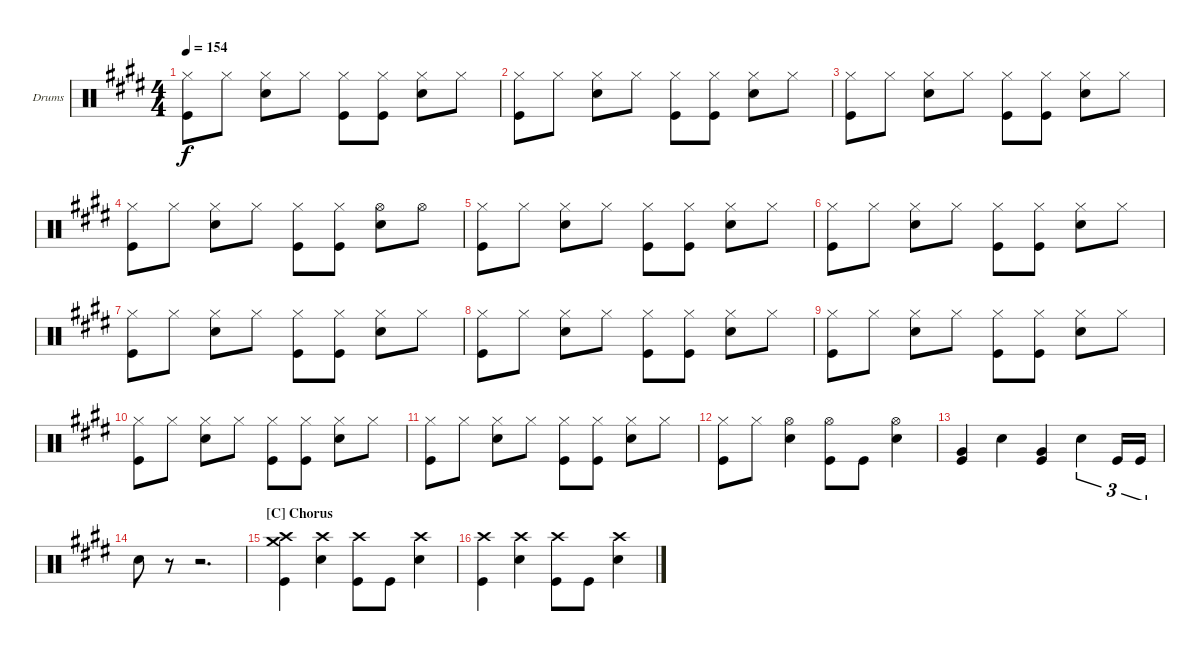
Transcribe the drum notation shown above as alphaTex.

\defaultSystemsLayout 4
\bracketExtendMode groupsimilarinstruments
\firstSystemTrackNameOrientation horizontal
\otherSystemsTrackNameOrientation horizontal
\track ("Jon Larsen" "Drums") {instrument percussion}
\staff {score}
\articulation defaults
\ts (4 4)
\tempo 154
\clef neutral
\scale
0.333333
\ks e
("Hi-Hat (closed)" "Kick (hit)").8{dy f} "Hi-Hat (closed)".8 ("Hi-Hat (closed)" "Snare (hit) 2").8 "Hi-Hat (closed)".8 ("Hi-Hat (closed)" "Kick (hit)").8 ("Hi-Hat (closed)" "Kick (hit)").8 ("Hi-Hat (closed)" "Snare (hit) 2").8 "Hi-Hat (closed)".8 |
\scale
0.333333 ("Hi-Hat (closed)" "Kick (hit)").8 "Hi-Hat (closed)".8 ("Hi-Hat (closed)" "Snare (hit) 2").8 "Hi-Hat (closed)".8 ("Hi-Hat (closed)" "Kick (hit)").8 ("Hi-Hat (closed)" "Kick (hit)").8 ("Hi-Hat (closed)" "Snare (hit) 2").8 "Hi-Hat (closed)".8 |
\scale
0.333333 ("Hi-Hat (closed)" "Kick (hit)").8 "Hi-Hat (closed)".8 ("Hi-Hat (closed)" "Snare (hit) 2").8 "Hi-Hat (closed)".8 ("Hi-Hat (closed)" "Kick (hit)").8 ("Hi-Hat (closed)" "Kick (hit)").8 ("Hi-Hat (closed)" "Snare (hit) 2").8 "Hi-Hat (closed)".8 |
\scale
0.333333 ("Hi-Hat (closed)" "Kick (hit)").8 "Hi-Hat (closed)".8 ("Hi-Hat (closed)" "Snare (hit) 2").8 "Hi-Hat (closed)".8 ("Hi-Hat (closed)" "Kick (hit)").8 ("Hi-Hat (closed)" "Kick (hit)").8 ("Hi-Hat (open)" "Snare (hit) 2").8 "Hi-Hat (open)".8 |
\scale
0.333333 ("Hi-Hat (closed)" "Kick (hit)").8 "Hi-Hat (closed)".8 ("Hi-Hat (closed)" "Snare (hit) 2").8 "Hi-Hat (closed)".8 ("Hi-Hat (closed)" "Kick (hit)").8 ("Hi-Hat (closed)" "Kick (hit)").8 ("Hi-Hat (closed)" "Snare (hit) 2").8 "Hi-Hat (closed)".8 |
\scale
0.333333 ("Hi-Hat (closed)" "Kick (hit)").8 "Hi-Hat (closed)".8 ("Hi-Hat (closed)" "Snare (hit) 2").8 "Hi-Hat (closed)".8 ("Hi-Hat (closed)" "Kick (hit)").8 ("Hi-Hat (closed)" "Kick (hit)").8 ("Hi-Hat (closed)" "Snare (hit) 2").8 "Hi-Hat (closed)".8 |
\scale
0.333333 ("Hi-Hat (closed)" "Kick (hit)").8 "Hi-Hat (closed)".8 ("Hi-Hat (closed)" "Snare (hit) 2").8 "Hi-Hat (closed)".8 ("Hi-Hat (closed)" "Kick (hit)").8 ("Hi-Hat (closed)" "Kick (hit)").8 ("Hi-Hat (closed)" "Snare (hit) 2").8 "Hi-Hat (closed)".8 |
\scale
0.333333 ("Hi-Hat (closed)" "Kick (hit)").8 "Hi-Hat (closed)".8 ("Hi-Hat (closed)" "Snare (hit) 2").8 "Hi-Hat (closed)".8 ("Hi-Hat (closed)" "Kick (hit)").8 ("Hi-Hat (closed)" "Kick (hit)").8 ("Hi-Hat (closed)" "Snare (hit) 2").8 "Hi-Hat (closed)".8 |
\scale
0.333333 ("Hi-Hat (closed)" "Kick (hit)").8 "Hi-Hat (closed)".8 ("Hi-Hat (closed)" "Snare (hit) 2").8 "Hi-Hat (closed)".8 ("Hi-Hat (closed)" "Kick (hit)").8 ("Hi-Hat (closed)" "Kick (hit)").8 ("Hi-Hat (closed)" "Snare (hit) 2").8 "Hi-Hat (closed)".8 |
\scale
0.333333 ("Hi-Hat (closed)" "Kick (hit)").8 "Hi-Hat (closed)".8 ("Hi-Hat (closed)" "Snare (hit) 2").8 "Hi-Hat (closed)".8 ("Hi-Hat (closed)" "Kick (hit)").8 ("Hi-Hat (closed)" "Kick (hit)").8 ("Hi-Hat (closed)" "Snare (hit) 2").8 "Hi-Hat (closed)".8 |
\scale
0.333333 ("Hi-Hat (closed)" "Kick (hit)").8 "Hi-Hat (closed)".8 ("Hi-Hat (closed)" "Snare (hit) 2").8 "Hi-Hat (closed)".8 ("Hi-Hat (closed)" "Kick (hit)").8 ("Hi-Hat (closed)" "Kick (hit)").8 ("Hi-Hat (closed)" "Snare (hit) 2").8 "Hi-Hat (closed)".8 |
\scale
0.333333 ("Hi-Hat (closed)" "Kick (hit)").8 "Hi-Hat (closed)".8 ("Hi-Hat (open)" "Snare (hit) 2").4 ("Hi-Hat (open)" "Kick (hit)").8 "Kick (hit)".8 ("Hi-Hat (open)" "Snare (hit) 2").4 |
\scale
0.333333 ("Very Low Tom (hit)" "Kick (hit)").4 "Snare (hit) 2".4 ("Very Low Tom (hit)" "Kick (hit)").4 "Snare (hit) 2".4{tu (3 2)} "Kick (hit)".16{tu (3 2)} "Kick (hit)".16{tu (3 2)} |
\scale
0.333333 "Snare (hit) 2".8 r.8 r.2{d} |
\section ("C" "Chorus")
\scale
0.333333 ("Crash medium (hit)" "Crash high (hit)" "Kick (hit)").4 ("Crash high (hit)" "Snare (hit) 2").4 ("Crash high (hit)" "Kick (hit)").8 "Kick (hit)".8 ("Crash high (hit)" "Snare (hit) 2").4 |
\scale
0.333333 ("Crash high (hit)" "Kick (hit)").4 ("Crash high (hit)" "Snare (hit) 2").4 ("Crash high (hit)" "Kick (hit)").8 "Kick (hit)".8 ("Crash high (hit)" "Snare (hit) 2").4
